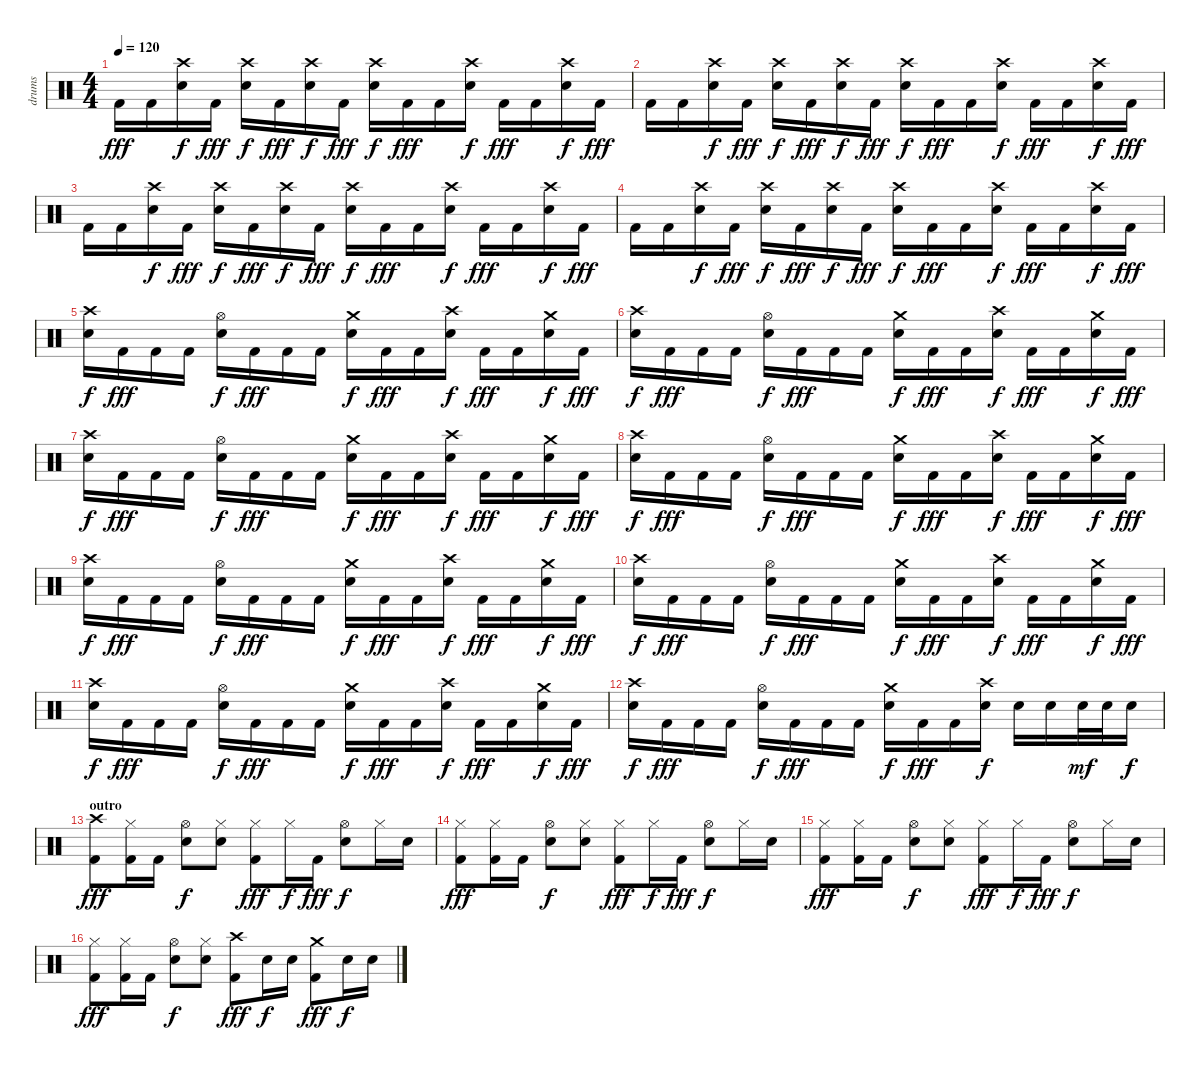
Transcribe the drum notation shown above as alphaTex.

\track ("drums" "drums") {instrument percussion}
\staff {score}
\articulation defaults
\ts (4 4)
\tempo 120
\clef neutral
\ks c "Kick (hit) 2".16{dy fff} "Kick (hit) 2".16
("Crash high (hit)" "Snare (hit) 2").16{dy f} "Kick (hit) 2".16{dy fff} ("Crash high (hit)" "Snare (hit) 2").16{dy f} "Kick (hit) 2".16{dy fff} ("Crash high (hit)" "Snare (hit) 2").16{dy f} "Kick (hit) 2".16{dy fff} ("Crash high (hit)" "Snare (hit) 2").16{dy f} "Kick (hit) 2".16{dy fff} "Kick (hit) 2".16 ("Crash high (hit)" "Snare (hit) 2").16{dy f} "Kick (hit) 2".16{dy fff} "Kick (hit) 2".16 ("Crash high (hit)" "Snare (hit) 2").16{dy f} "Kick (hit) 2".16{dy fff} |
"Kick (hit) 2".16 "Kick (hit) 2".16 ("Crash high (hit)" "Snare (hit) 2").16{dy f} "Kick (hit) 2".16{dy fff} ("Crash high (hit)" "Snare (hit) 2").16{dy f} "Kick (hit) 2".16{dy fff} ("Crash high (hit)" "Snare (hit) 2").16{dy f} "Kick (hit) 2".16{dy fff} ("Crash high (hit)" "Snare (hit) 2").16{dy f} "Kick (hit) 2".16{dy fff} "Kick (hit) 2".16 ("Crash high (hit)" "Snare (hit) 2").16{dy f} "Kick (hit) 2".16{dy fff} "Kick (hit) 2".16 ("Crash high (hit)" "Snare (hit) 2").16{dy f} "Kick (hit) 2".16{dy fff} |
"Kick (hit) 2".16 "Kick (hit) 2".16 ("Crash high (hit)" "Snare (hit) 2").16{dy f} "Kick (hit) 2".16{dy fff} ("Crash high (hit)" "Snare (hit) 2").16{dy f} "Kick (hit) 2".16{dy fff} ("Crash high (hit)" "Snare (hit) 2").16{dy f} "Kick (hit) 2".16{dy fff} ("Crash high (hit)" "Snare (hit) 2").16{dy f} "Kick (hit) 2".16{dy fff} "Kick (hit) 2".16 ("Crash high (hit)" "Snare (hit) 2").16{dy f} "Kick (hit) 2".16{dy fff} "Kick (hit) 2".16 ("Crash high (hit)" "Snare (hit) 2").16{dy f} "Kick (hit) 2".16{dy fff} |
"Kick (hit) 2".16 "Kick (hit) 2".16 ("Crash high (hit)" "Snare (hit) 2").16{dy f} "Kick (hit) 2".16{dy fff} ("Crash high (hit)" "Snare (hit) 2").16{dy f} "Kick (hit) 2".16{dy fff} ("Crash high (hit)" "Snare (hit) 2").16{dy f} "Kick (hit) 2".16{dy fff} ("Crash high (hit)" "Snare (hit) 2").16{dy f} "Kick (hit) 2".16{dy fff} "Kick (hit) 2".16 ("Crash high (hit)" "Snare (hit) 2").16{dy f} "Kick (hit) 2".16{dy fff} "Kick (hit) 2".16 ("Crash high (hit)" "Snare (hit) 2").16{dy f} "Kick (hit) 2".16{dy fff} |
("Crash high (hit)" "Snare (hit) 2").16{dy f} "Kick (hit) 2".16{dy fff} "Kick (hit) 2".16 "Kick (hit) 2".16 ("Hi-Hat (open)" "Snare (hit) 2").16{dy f} "Kick (hit) 2".16{dy fff} "Kick (hit) 2".16 "Kick (hit) 2".16 ("Crash medium (hit)" "Snare (hit) 2").16{dy f} "Kick (hit) 2".16{dy fff} "Kick (hit) 2".16 ("Crash high (hit)" "Snare (hit) 2").16{dy f} "Kick (hit) 2".16{dy fff} "Kick (hit) 2".16 ("Crash medium (hit)" "Snare (hit) 2").16{dy f} "Kick (hit) 2".16{dy fff} |
("Crash high (hit)" "Snare (hit) 2").16{dy f} "Kick (hit) 2".16{dy fff} "Kick (hit) 2".16 "Kick (hit) 2".16 ("Hi-Hat (open)" "Snare (hit) 2").16{dy f} "Kick (hit) 2".16{dy fff} "Kick (hit) 2".16 "Kick (hit) 2".16 ("Crash medium (hit)" "Snare (hit) 2").16{dy f} "Kick (hit) 2".16{dy fff} "Kick (hit) 2".16 ("Crash high (hit)" "Snare (hit) 2").16{dy f} "Kick (hit) 2".16{dy fff} "Kick (hit) 2".16 ("Crash medium (hit)" "Snare (hit) 2").16{dy f} "Kick (hit) 2".16{dy fff} |
("Crash high (hit)" "Snare (hit) 2").16{dy f} "Kick (hit) 2".16{dy fff} "Kick (hit) 2".16 "Kick (hit) 2".16 ("Hi-Hat (open)" "Snare (hit) 2").16{dy f} "Kick (hit) 2".16{dy fff} "Kick (hit) 2".16 "Kick (hit) 2".16 ("Crash medium (hit)" "Snare (hit) 2").16{dy f} "Kick (hit) 2".16{dy fff} "Kick (hit) 2".16 ("Crash high (hit)" "Snare (hit) 2").16{dy f} "Kick (hit) 2".16{dy fff} "Kick (hit) 2".16 ("Crash medium (hit)" "Snare (hit) 2").16{dy f} "Kick (hit) 2".16{dy fff} |
("Crash high (hit)" "Snare (hit) 2").16{dy f} "Kick (hit) 2".16{dy fff} "Kick (hit) 2".16 "Kick (hit) 2".16 ("Hi-Hat (open)" "Snare (hit) 2").16{dy f} "Kick (hit) 2".16{dy fff} "Kick (hit) 2".16 "Kick (hit) 2".16 ("Crash medium (hit)" "Snare (hit) 2").16{dy f} "Kick (hit) 2".16{dy fff} "Kick (hit) 2".16 ("Crash high (hit)" "Snare (hit) 2").16{dy f} "Kick (hit) 2".16{dy fff} "Kick (hit) 2".16 ("Crash medium (hit)" "Snare (hit) 2").16{dy f} "Kick (hit) 2".16{dy fff} |
("Crash high (hit)" "Snare (hit) 2").16{dy f} "Kick (hit) 2".16{dy fff} "Kick (hit) 2".16 "Kick (hit) 2".16 ("Hi-Hat (open)" "Snare (hit) 2").16{dy f} "Kick (hit) 2".16{dy fff} "Kick (hit) 2".16 "Kick (hit) 2".16 ("Crash medium (hit)" "Snare (hit) 2").16{dy f} "Kick (hit) 2".16{dy fff} "Kick (hit) 2".16 ("Crash high (hit)" "Snare (hit) 2").16{dy f} "Kick (hit) 2".16{dy fff} "Kick (hit) 2".16 ("Crash medium (hit)" "Snare (hit) 2").16{dy f} "Kick (hit) 2".16{dy fff} |
("Crash high (hit)" "Snare (hit) 2").16{dy f} "Kick (hit) 2".16{dy fff} "Kick (hit) 2".16 "Kick (hit) 2".16 ("Hi-Hat (open)" "Snare (hit) 2").16{dy f} "Kick (hit) 2".16{dy fff} "Kick (hit) 2".16 "Kick (hit) 2".16 ("Crash medium (hit)" "Snare (hit) 2").16{dy f} "Kick (hit) 2".16{dy fff} "Kick (hit) 2".16 ("Crash high (hit)" "Snare (hit) 2").16{dy f} "Kick (hit) 2".16{dy fff} "Kick (hit) 2".16 ("Crash medium (hit)" "Snare (hit) 2").16{dy f} "Kick (hit) 2".16{dy fff} |
("Crash high (hit)" "Snare (hit) 2").16{dy f} "Kick (hit) 2".16{dy fff} "Kick (hit) 2".16 "Kick (hit) 2".16 ("Hi-Hat (open)" "Snare (hit) 2").16{dy f} "Kick (hit) 2".16{dy fff} "Kick (hit) 2".16 "Kick (hit) 2".16 ("Crash medium (hit)" "Snare (hit) 2").16{dy f} "Kick (hit) 2".16{dy fff} "Kick (hit) 2".16 ("Crash high (hit)" "Snare (hit) 2").16{dy f} "Kick (hit) 2".16{dy fff} "Kick (hit) 2".16 ("Crash medium (hit)" "Snare (hit) 2").16{dy f} "Kick (hit) 2".16{dy fff} |
("Crash high (hit)" "Snare (hit) 2").16{dy f} "Kick (hit) 2".16{dy fff} "Kick (hit) 2".16 "Kick (hit) 2".16 ("Hi-Hat (open)" "Snare (hit) 2").16{dy f} "Kick (hit) 2".16{dy fff} "Kick (hit) 2".16 "Kick (hit) 2".16 ("Crash medium (hit)" "Snare (hit) 2").16{dy f} "Kick (hit) 2".16{dy fff} "Kick (hit) 2".16 ("Crash high (hit)" "Snare (hit) 2").16{dy f} "Snare (hit) 2".16 "Snare (hit) 2".16 "Snare (hit) 2".32{dy mf} "Snare (hit) 2".32 "Snare (hit) 2".16{dy f} |
\section ("" "outro")
("Crash high (hit)" "Kick (hit) 2").8{dy fff} ("Hi-Hat (closed)" "Kick (hit) 2").16 "Kick (hit) 2".16 ("Hi-Hat (open)" "Snare (hit) 2").8{dy f} ("Hi-Hat (closed)" "Snare (hit) 2").8 ("Hi-Hat (closed)" "Kick (hit) 2").8{dy fff} "Hi-Hat (closed)".16{dy f} "Kick (hit) 2".16{dy fff} ("Hi-Hat (open)" "Snare (hit) 2").8{dy f} "Hi-Hat (closed)".16 "Snare (hit) 2".16 |
("Hi-Hat (closed)" "Kick (hit) 2").8{dy fff} ("Hi-Hat (closed)" "Kick (hit) 2").16 "Kick (hit) 2".16 ("Hi-Hat (open)" "Snare (hit) 2").8{dy f} ("Hi-Hat (closed)" "Snare (hit) 2").8 ("Hi-Hat (closed)" "Kick (hit) 2").8{dy fff} "Hi-Hat (closed)".16{dy f} "Kick (hit) 2".16{dy fff} ("Hi-Hat (open)" "Snare (hit) 2").8{dy f} "Hi-Hat (closed)".16 "Snare (hit) 2".16 |
("Hi-Hat (closed)" "Kick (hit) 2").8{dy fff} ("Hi-Hat (closed)" "Kick (hit) 2").16 "Kick (hit) 2".16 ("Hi-Hat (open)" "Snare (hit) 2").8{dy f} ("Hi-Hat (closed)" "Snare (hit) 2").8 ("Hi-Hat (closed)" "Kick (hit) 2").8{dy fff} "Hi-Hat (closed)".16{dy f} "Kick (hit) 2".16{dy fff} ("Hi-Hat (open)" "Snare (hit) 2").8{dy f} "Hi-Hat (closed)".16 "Snare (hit) 2".16 |
("Hi-Hat (closed)" "Kick (hit) 2").8{dy fff} ("Hi-Hat (closed)" "Kick (hit) 2").16 "Kick (hit) 2".16 ("Hi-Hat (open)" "Snare (hit) 2").8{dy f} ("Hi-Hat (closed)" "Snare (hit) 2").8 ("Crash high (hit)" "Kick (hit) 2").8{dy fff} "Snare (hit) 2".16{dy f} "Snare (hit) 2".16 ("Crash medium (hit)" "Kick (hit) 2").8{dy fff} "Snare (hit) 2".16{dy f} "Snare (hit) 2".16
